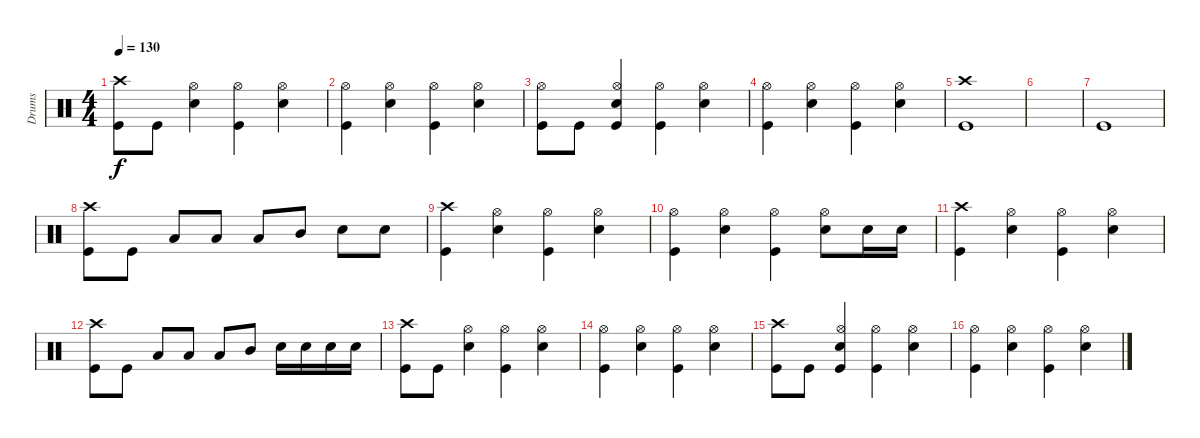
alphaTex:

\track ("Drums" "Drums") {instrument percussion}
\staff {score}
\articulation defaults
\ts (4 4)
\tempo 130
\clef neutral
\ks c
("Crash high (hit)" "Kick (hit)").8{dy f} "Kick (hit)".8 ("Hi-Hat (open)" "Snare (hit) 2").4 ("Hi-Hat (open)" "Kick (hit)").4 ("Hi-Hat (open)" "Snare (hit) 2").4 |
("Hi-Hat (open)" "Kick (hit)").4 ("Hi-Hat (open)" "Snare (hit) 2").4 ("Hi-Hat (open)" "Kick (hit)").4 ("Hi-Hat (open)" "Snare (hit) 2").4 |
("Hi-Hat (open)" "Kick (hit)").8 "Kick (hit)".8 ("Hi-Hat (open)" "Snare (hit) 2" "Kick (hit)").4 ("Hi-Hat (open)" "Kick (hit)").4 ("Hi-Hat (open)" "Snare (hit) 2").4 |
("Hi-Hat (open)" "Kick (hit)").4 ("Hi-Hat (open)" "Snare (hit) 2").4 ("Hi-Hat (open)" "Kick (hit)").4 ("Hi-Hat (open)" "Snare (hit) 2").4 |
("Crash high (hit)" "Kick (hit)").1 |
|
"Kick (hit)".1 |
("Crash high (hit)" "Kick (hit)").8 "Kick (hit)".8 "Low Floor Tom (hit)".8 "Low Floor Tom (hit)".8 "Low Tom (hit)".8 "Mid Tom (hit)".8 "Snare (hit) 2".8 "Snare (hit) 2".8 |
("Crash high (hit)" "Kick (hit)").4 ("Hi-Hat (open)" "Snare (hit) 2").4 ("Hi-Hat (open)" "Kick (hit)").4 ("Hi-Hat (open)" "Snare (hit) 2").4 |
("Hi-Hat (open)" "Kick (hit)").4 ("Hi-Hat (open)" "Snare (hit) 2").4 ("Hi-Hat (open)" "Kick (hit)").4 ("Hi-Hat (open)" "Snare (hit) 2").8 "Snare (hit) 2".16 "Snare (hit) 2".16 |
("Crash high (hit)" "Kick (hit)").4 ("Hi-Hat (open)" "Snare (hit) 2").4 ("Hi-Hat (open)" "Kick (hit)").4 ("Hi-Hat (open)" "Snare (hit) 2").4 |
("Crash high (hit)" "Kick (hit)").8 "Kick (hit)".8 "Low Floor Tom (hit)".8 "Low Floor Tom (hit)".8 "Low Tom (hit)".8 "Mid Tom (hit)".8 "Snare (hit) 2".16 "Snare (hit) 2".16 "Snare (hit) 2".16 "Snare (hit) 2".16 |
("Crash high (hit)" "Kick (hit)").8 "Kick (hit)".8 ("Hi-Hat (open)" "Snare (hit) 2").4 ("Hi-Hat (open)" "Kick (hit)").4 ("Hi-Hat (open)" "Snare (hit) 2").4 |
("Hi-Hat (open)" "Kick (hit)").4 ("Hi-Hat (open)" "Snare (hit) 2").4 ("Hi-Hat (open)" "Kick (hit)").4 ("Hi-Hat (open)" "Snare (hit) 2").4 |
("Crash high (hit)" "Kick (hit)").8 "Kick (hit)".8 ("Hi-Hat (open)" "Snare (hit) 2" "Kick (hit)").4 ("Hi-Hat (open)" "Kick (hit)").4 ("Hi-Hat (open)" "Snare (hit) 2").4 |
("Hi-Hat (open)" "Kick (hit)").4 ("Hi-Hat (open)" "Snare (hit) 2").4 ("Hi-Hat (open)" "Kick (hit)").4 ("Hi-Hat (open)" "Snare (hit) 2").4
